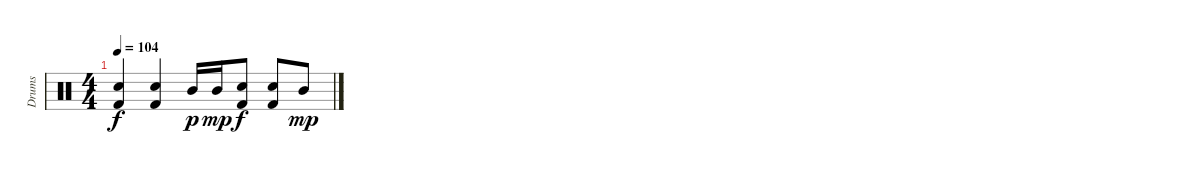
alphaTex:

\track ("Drums" "Drums") {instrument percussion}
\staff {score}
\articulation defaults
\ts (4 4)
\tempo 104
\clef neutral
\ks c
("Snare (hit) 2" "Kick (hit) 2").4{dy f volume 1} ("Snare (hit) 2" "Kick (hit) 2").4 "Mid Tom (hit)".16{dy p} "Mid Tom (hit)".16{dy mp} ("Snare (hit) 2" "Kick (hit) 2").8{dy f} ("Snare (hit) 2" "Kick (hit) 2").8 "Mid Tom (hit)".8{dy mp}
